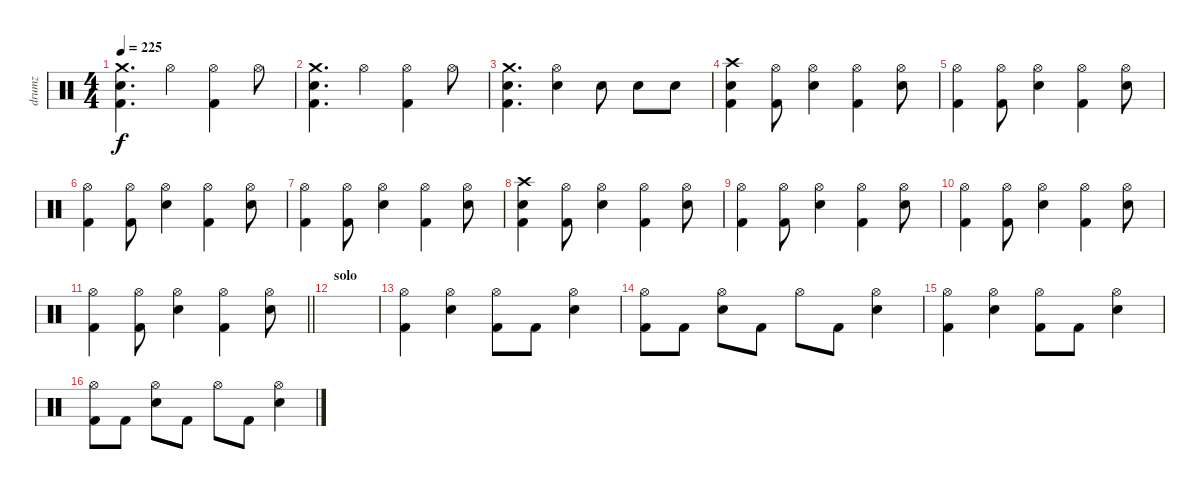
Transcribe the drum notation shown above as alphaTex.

\track ("drumz" "drumz") {instrument percussion}
\staff {score}
\articulation defaults
\ts (4 4)
\tempo 225
\clef neutral
\ks c
("Crash medium (hit)" "Electric Snare (hit)" "Kick (hit) 2").4{d dy f} "Hi-Hat (open)".4 ("Hi-Hat (open)" "Kick (hit) 2").4 "Hi-Hat (open)".8 |
("Crash medium (hit)" "Electric Snare (hit)" "Kick (hit) 2").4{d} "Hi-Hat (open)".4 ("Hi-Hat (open)" "Kick (hit) 2").4 "Hi-Hat (open)".8 |
("Crash medium (hit)" "Electric Snare (hit)" "Kick (hit) 2").4{d} ("Hi-Hat (open)" "Electric Snare (hit)").4 "Electric Snare (hit)".8 "Electric Snare (hit)".8 "Electric Snare (hit)".8 |
("Crash high (hit)" "Electric Snare (hit)" "Kick (hit) 2").4 ("Hi-Hat (open)" "Kick (hit) 2").8 ("Hi-Hat (open)" "Electric Snare (hit)").4 ("Hi-Hat (open)" "Kick (hit) 2").4 ("Hi-Hat (open)" "Electric Snare (hit)").8 |
("Hi-Hat (open)" "Kick (hit) 2").4 ("Hi-Hat (open)" "Kick (hit) 2").8 ("Hi-Hat (open)" "Electric Snare (hit)").4 ("Hi-Hat (open)" "Kick (hit) 2").4 ("Hi-Hat (open)" "Electric Snare (hit)").8 |
("Hi-Hat (open)" "Kick (hit) 2").4 ("Hi-Hat (open)" "Kick (hit) 2").8 ("Hi-Hat (open)" "Electric Snare (hit)").4 ("Hi-Hat (open)" "Kick (hit) 2").4 ("Hi-Hat (open)" "Electric Snare (hit)").8 |
("Hi-Hat (open)" "Kick (hit) 2").4 ("Hi-Hat (open)" "Kick (hit) 2").8 ("Hi-Hat (open)" "Electric Snare (hit)").4 ("Hi-Hat (open)" "Kick (hit) 2").4 ("Hi-Hat (open)" "Electric Snare (hit)").8 |
("Crash high (hit)" "Electric Snare (hit)" "Kick (hit) 2").4 ("Hi-Hat (open)" "Kick (hit) 2").8 ("Hi-Hat (open)" "Electric Snare (hit)").4 ("Hi-Hat (open)" "Kick (hit) 2").4 ("Hi-Hat (open)" "Electric Snare (hit)").8 |
("Hi-Hat (open)" "Kick (hit) 2").4 ("Hi-Hat (open)" "Kick (hit) 2").8 ("Hi-Hat (open)" "Electric Snare (hit)").4 ("Hi-Hat (open)" "Kick (hit) 2").4 ("Hi-Hat (open)" "Electric Snare (hit)").8 |
("Hi-Hat (open)" "Kick (hit) 2").4 ("Hi-Hat (open)" "Kick (hit) 2").8 ("Hi-Hat (open)" "Electric Snare (hit)").4 ("Hi-Hat (open)" "Kick (hit) 2").4 ("Hi-Hat (open)" "Electric Snare (hit)").8 |
\barLineRight lightlight
("Hi-Hat (open)" "Kick (hit) 2").4 ("Hi-Hat (open)" "Kick (hit) 2").8 ("Hi-Hat (open)" "Electric Snare (hit)").4 ("Hi-Hat (open)" "Kick (hit) 2").4 ("Hi-Hat (open)" "Electric Snare (hit)").8 |
\section ("" "solo")
|
("Hi-Hat (open)" "Kick (hit) 2").4 ("Hi-Hat (open)" "Electric Snare (hit)").4 ("Hi-Hat (open)" "Kick (hit) 2").8 "Kick (hit) 2".8 ("Hi-Hat (open)" "Electric Snare (hit)").4 |
("Hi-Hat (open)" "Kick (hit) 2").8 "Kick (hit) 2".8 ("Hi-Hat (open)" "Electric Snare (hit)").8 "Kick (hit) 2".8 "Hi-Hat (open)".8 "Kick (hit) 2".8 ("Hi-Hat (open)" "Electric Snare (hit)").4 |
("Hi-Hat (open)" "Kick (hit) 2").4 ("Hi-Hat (open)" "Electric Snare (hit)").4 ("Hi-Hat (open)" "Kick (hit) 2").8 "Kick (hit) 2".8 ("Hi-Hat (open)" "Electric Snare (hit)").4 |
("Hi-Hat (open)" "Kick (hit) 2").8 "Kick (hit) 2".8 ("Hi-Hat (open)" "Electric Snare (hit)").8 "Kick (hit) 2".8 "Hi-Hat (open)".8 "Kick (hit) 2".8 ("Hi-Hat (open)" "Electric Snare (hit)").4
